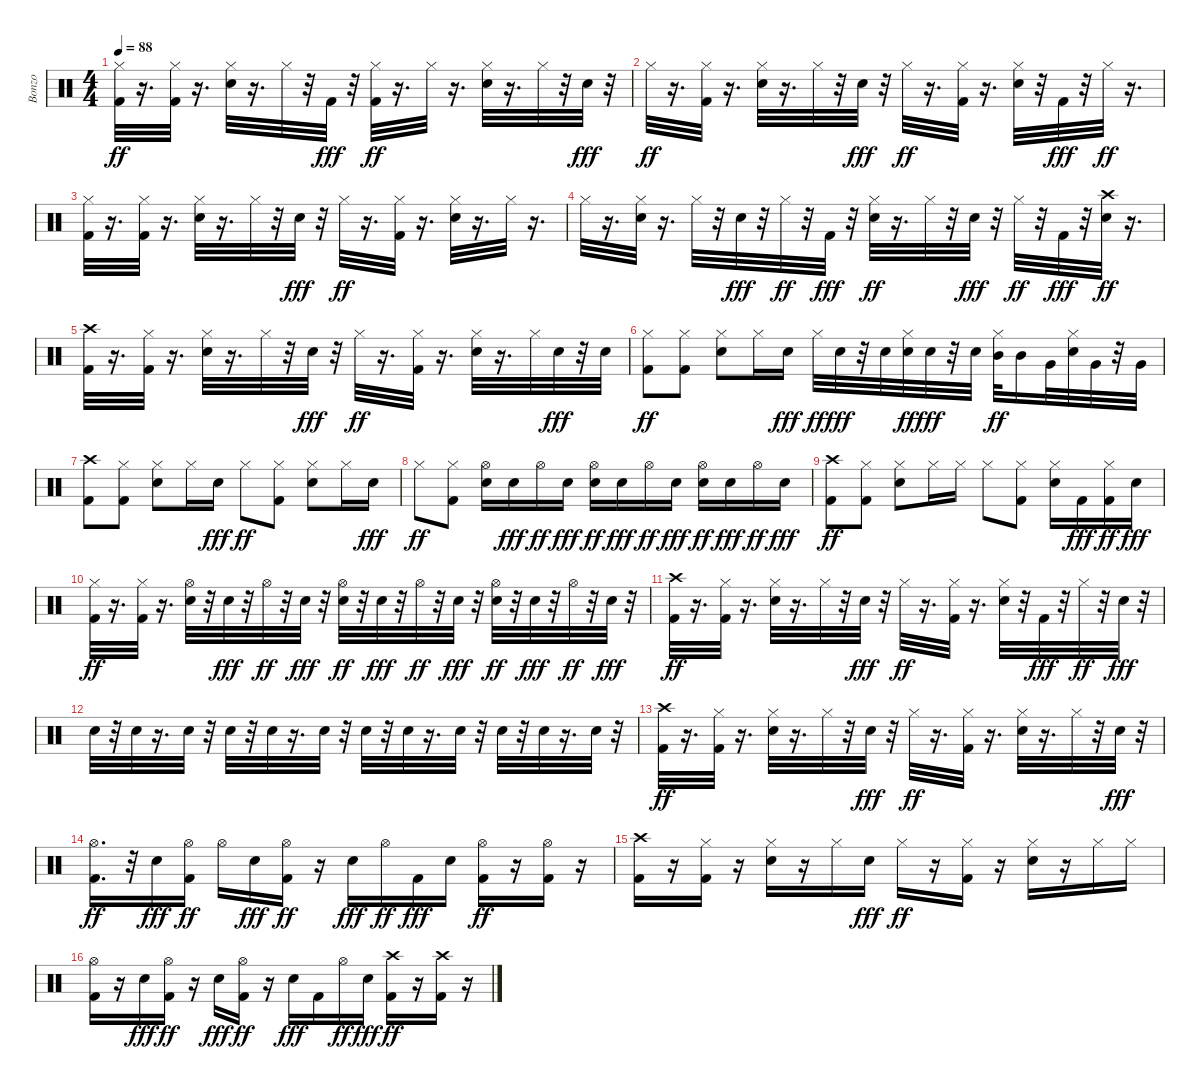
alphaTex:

\track ("Bonzo" "Bonzo") {instrument percussion}
\staff {score}
\articulation defaults
\ts (4 4)
\tempo 88
\clef neutral
\ks c
("Kick (hit) 2" "Hi-Hat (closed)").32{dy ff} r.16{d} ("Kick (hit) 2" "Hi-Hat (closed)").32 r.16{d} ("Snare (hit) 2" "Hi-Hat (closed)").32 r.16{d} "Hi-Hat (closed)".32 r.32 "Kick (hit) 2".32{dy fff} r.32 ("Kick (hit) 2" "Hi-Hat (closed)").32{dy ff} r.16{d} "Hi-Hat (closed)".32 r.16{d} ("Snare (hit) 2" "Hi-Hat (closed)").32 r.16{d} "Hi-Hat (closed)".32 r.32 "Snare (hit) 2".32{dy fff} r.32 |
"Hi-Hat (closed)".32{dy ff} r.16{d} ("Kick (hit) 2" "Hi-Hat (closed)").32 r.16{d} ("Snare (hit) 2" "Hi-Hat (closed)").32 r.16{d} "Hi-Hat (closed)".32 r.32 "Snare (hit) 2".32{dy fff} r.32 "Hi-Hat (closed)".32{dy ff} r.16{d} ("Kick (hit) 2" "Hi-Hat (closed)").32 r.16{d} ("Snare (hit) 2" "Hi-Hat (closed)").32 r.32 "Kick (hit) 2".32{dy fff} r.32 "Hi-Hat (closed)".32{dy ff} r.16{d} |
("Kick (hit) 2" "Hi-Hat (closed)").32 r.16{d} ("Kick (hit) 2" "Hi-Hat (closed)").32 r.16{d} ("Snare (hit) 2" "Hi-Hat (closed)").32 r.16{d} "Hi-Hat (closed)".32 r.32 "Snare (hit) 2".32{dy fff} r.32 "Hi-Hat (closed)".32{dy ff} r.16{d} ("Kick (hit) 2" "Hi-Hat (closed)").32 r.16{d} ("Snare (hit) 2" "Hi-Hat (closed)").32 r.16{d} "Hi-Hat (closed)".32 r.16{d} |
"Hi-Hat (closed)".32 r.16{d} ("Snare (hit) 2" "Hi-Hat (closed)").32 r.16{d} "Hi-Hat (closed)".32 r.32 "Snare (hit) 2".32{dy fff} r.32 "Hi-Hat (closed)".32{dy ff} r.32 "Kick (hit) 2".32{dy fff} r.32 ("Snare (hit) 2" "Hi-Hat (closed)").32{dy ff} r.16{d} "Hi-Hat (closed)".32 r.32 "Snare (hit) 2".32{dy fff} r.32 "Hi-Hat (closed)".32{dy ff} r.32 "Kick (hit) 2".32{dy fff} r.32 ("Snare (hit) 2" "Crash high (hit)").32{dy ff} r.16{d} |
("Kick (hit) 2" "Crash high (hit)").32 r.16{d} ("Kick (hit) 2" "Hi-Hat (closed)").32 r.16{d} ("Snare (hit) 2" "Hi-Hat (closed)").32 r.16{d} "Hi-Hat (closed)".32 r.32 "Snare (hit) 2".32{dy fff} r.32 "Hi-Hat (closed)".32{dy ff} r.16{d} ("Kick (hit) 2" "Hi-Hat (closed)").32 r.16{d} ("Snare (hit) 2" "Hi-Hat (closed)").32 r.16{d} "Hi-Hat (closed)".32 "Snare (hit) 2".32{dy fff} r.32 "Snare (hit) 2".32 |
("Kick (hit) 2" "Hi-Hat (closed)").8{dy ff} ("Kick (hit) 2" "Hi-Hat (closed)").8 ("Snare (hit) 2" "Hi-Hat (closed)").8 "Hi-Hat (closed)".16 "Snare (hit) 2".16{dy fff} "Hi-Hat (closed)".32{dy ff} "Snare (hit) 2".32{dy fff} r.32 "Snare (hit) 2".32 ("Snare (hit) 2" "Hi-Hat (closed)").32{dy ff} "Snare (hit) 2".32{dy fff} r.32 "Snare (hit) 2".32 ("Hi-Hat (closed)" "Mid Tom (hit)").32{dy ff} "Mid Tom (hit)".16 "Very Low Tom (hit)".32 ("Snare (hit) 2" "Hi-Hat (closed)").32 "Very Low Tom (hit)".32 r.32 "Very Low Tom (hit)".32 |
("Kick (hit) 2" "Crash high (hit)").8 ("Kick (hit) 2" "Hi-Hat (closed)").8 ("Snare (hit) 2" "Hi-Hat (closed)").8 "Hi-Hat (closed)".16 "Snare (hit) 2".16{dy fff} "Hi-Hat (closed)".8{dy ff} ("Kick (hit) 2" "Hi-Hat (closed)").8 ("Snare (hit) 2" "Hi-Hat (closed)").8 "Hi-Hat (closed)".16 "Snare (hit) 2".16{dy fff} |
"Hi-Hat (closed)".8{dy ff} ("Kick (hit) 2" "Hi-Hat (closed)").8 ("Snare (hit) 2" "Hi-Hat (open)").16 "Snare (hit) 2".16{dy fff} "Hi-Hat (open)".16{dy ff} "Snare (hit) 2".16{dy fff} ("Snare (hit) 2" "Hi-Hat (open)").16{dy ff} "Snare (hit) 2".16{dy fff} "Hi-Hat (open)".16{dy ff} "Snare (hit) 2".16{dy fff} ("Snare (hit) 2" "Hi-Hat (open)").16{dy ff} "Snare (hit) 2".16{dy fff} "Hi-Hat (open)".16{dy ff} "Snare (hit) 2".16{dy fff} |
("Kick (hit) 2" "Crash high (hit)").8{dy ff} ("Kick (hit) 2" "Hi-Hat (closed)").8 ("Snare (hit) 2" "Hi-Hat (closed)").8 "Hi-Hat (closed)".16 "Hi-Hat (closed)".16 "Hi-Hat (closed)".8 ("Kick (hit) 2" "Hi-Hat (closed)").8 ("Snare (hit) 2" "Hi-Hat (closed)").16 "Kick (hit) 2".16{dy fff} ("Kick (hit) 2" "Hi-Hat (closed)").16{dy ff} "Snare (hit) 2".16{dy fff} |
("Kick (hit) 2" "Hi-Hat (closed)").32{dy ff} r.16{d} ("Kick (hit) 2" "Hi-Hat (closed)").32 r.16{d} ("Snare (hit) 2" "Hi-Hat (open)").32 r.32 "Snare (hit) 2".32{dy fff} r.32 "Hi-Hat (open)".32{dy ff} r.32 "Snare (hit) 2".32{dy fff} r.32 ("Snare (hit) 2" "Hi-Hat (open)").32{dy ff} r.32 "Snare (hit) 2".32{dy fff} r.32 "Hi-Hat (open)".32{dy ff} r.32 "Snare (hit) 2".32{dy fff} r.32 ("Snare (hit) 2" "Hi-Hat (open)").32{dy ff} r.32 "Snare (hit) 2".32{dy fff} r.32 "Hi-Hat (open)".32{dy ff} r.32 "Snare (hit) 2".32{dy fff} r.32 |
("Kick (hit) 2" "Crash high (hit)").32{dy ff} r.16{d} ("Kick (hit) 2" "Hi-Hat (closed)").32 r.16{d} ("Snare (hit) 2" "Hi-Hat (closed)").32 r.16{d} "Hi-Hat (closed)".32 r.32 "Snare (hit) 2".32{dy fff} r.32 "Hi-Hat (closed)".32{dy ff} r.16{d} ("Kick (hit) 2" "Hi-Hat (closed)").32 r.16{d} ("Snare (hit) 2" "Hi-Hat (closed)").32 r.32 "Kick (hit) 2".32{dy fff} r.32 "Hi-Hat (closed)".32{dy ff} r.32 "Snare (hit) 2".32{dy fff} r.32 |
"Snare (hit) 2".32 r.32 "Snare (hit) 2".32 r.16{d} "Snare (hit) 2".32 r.32 "Snare (hit) 2".32 r.32 "Snare (hit) 2".32 r.16{d} "Snare (hit) 2".32 r.32 "Snare (hit) 2".32 r.32 "Snare (hit) 2".32 r.16{d} "Snare (hit) 2".32 r.32 "Snare (hit) 2".32 r.32 "Snare (hit) 2".32 r.16{d} "Snare (hit) 2".32 r.32 |
("Kick (hit) 2" "Crash high (hit)").32{dy ff} r.16{d} ("Kick (hit) 2" "Hi-Hat (closed)").32 r.16{d} ("Snare (hit) 2" "Hi-Hat (closed)").32 r.16{d} "Hi-Hat (closed)".32 r.32 "Snare (hit) 2".32{dy fff} r.32 "Hi-Hat (closed)".32{dy ff} r.16{d} ("Kick (hit) 2" "Hi-Hat (closed)").32 r.16{d} ("Snare (hit) 2" "Hi-Hat (closed)").32 r.16{d} "Hi-Hat (closed)".32 r.32 "Snare (hit) 2".32{dy fff} r.32 |
("Kick (hit) 2" "Hi-Hat (open)").16{d dy ff} r.32 "Snare (hit) 2".16{dy fff} ("Kick (hit) 2" "Hi-Hat (open)").16{dy ff} "Hi-Hat (open)".16 "Snare (hit) 2".16{dy fff} ("Kick (hit) 2" "Hi-Hat (open)").16{dy ff} r.16 "Snare (hit) 2".16{dy fff} "Hi-Hat (open)".16{dy ff} "Kick (hit) 2".16{dy fff} "Snare (hit) 2".16 ("Kick (hit) 2" "Hi-Hat (open)").16{dy ff} r.16 ("Kick (hit) 2" "Hi-Hat (open)").16 r.16 |
("Kick (hit) 2" "Crash high (hit)").16 r.16 ("Kick (hit) 2" "Hi-Hat (closed)").16 r.16 ("Snare (hit) 2" "Hi-Hat (closed)").16 r.16 "Hi-Hat (closed)".16 "Snare (hit) 2".16{dy fff} "Hi-Hat (closed)".16{dy ff} r.16 ("Kick (hit) 2" "Hi-Hat (closed)").16 r.16 ("Snare (hit) 2" "Hi-Hat (closed)").16 r.16 "Hi-Hat (closed)".16 "Hi-Hat (closed)".16 |
("Kick (hit) 2" "Hi-Hat (open)").16 r.16 "Snare (hit) 2".16{dy fff} ("Kick (hit) 2" "Hi-Hat (open)").16{dy ff} r.16 "Snare (hit) 2".16{dy fff} ("Kick (hit) 2" "Hi-Hat (open)").16{dy ff} r.16 "Snare (hit) 2".16{dy fff} "Kick (hit) 2".16 "Hi-Hat (open)".16{dy ff} "Snare (hit) 2".16{dy fff} ("Kick (hit) 2" "Crash high (hit)").16{dy ff} r.16 ("Kick (hit) 2" "Crash high (hit)").16 r.16
